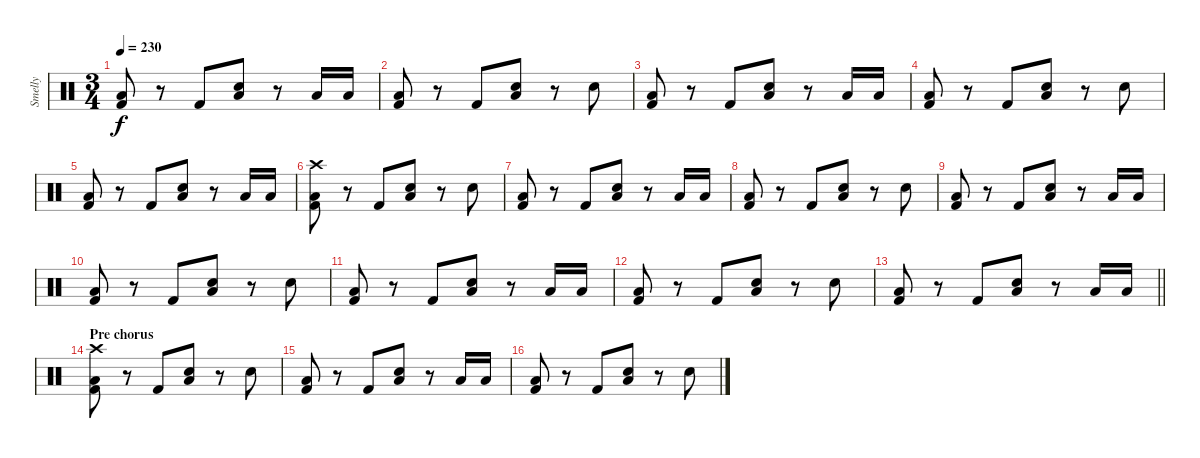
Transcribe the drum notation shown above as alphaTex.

\track ("Smelly" "Smelly") {instrument percussion}
\staff {score}
\articulation defaults
\ts (3 4)
\tempo 230
\clef neutral
\ks c
("Low Floor Tom (hit)" "Kick (hit) 2").8{dy f} r.8 "Kick (hit) 2".8 ("Low Floor Tom (hit)" "Electric Snare (hit)").8 r.8 "Low Floor Tom (hit)".16 "Low Floor Tom (hit)".16 |
("Low Floor Tom (hit)" "Kick (hit) 2").8 r.8 "Kick (hit) 2".8 ("Low Floor Tom (hit)" "Electric Snare (hit)").8 r.8 "Electric Snare (hit)".8 |
("Low Floor Tom (hit)" "Kick (hit) 2").8 r.8 "Kick (hit) 2".8 ("Low Floor Tom (hit)" "Electric Snare (hit)").8 r.8 "Low Floor Tom (hit)".16 "Low Floor Tom (hit)".16 |
("Low Floor Tom (hit)" "Kick (hit) 2").8 r.8 "Kick (hit) 2".8 ("Low Floor Tom (hit)" "Electric Snare (hit)").8 r.8 "Electric Snare (hit)".8 |
("Low Floor Tom (hit)" "Kick (hit) 2").8 r.8 "Kick (hit) 2".8 ("Low Floor Tom (hit)" "Electric Snare (hit)").8 r.8 "Low Floor Tom (hit)".16 "Low Floor Tom (hit)".16 |
("Crash high (hit)" "Low Floor Tom (hit)" "Kick (hit) 2").8 r.8 "Kick (hit) 2".8 ("Low Floor Tom (hit)" "Electric Snare (hit)").8 r.8 "Electric Snare (hit)".8 |
("Low Floor Tom (hit)" "Kick (hit) 2").8 r.8 "Kick (hit) 2".8 ("Low Floor Tom (hit)" "Electric Snare (hit)").8 r.8 "Low Floor Tom (hit)".16 "Low Floor Tom (hit)".16 |
("Low Floor Tom (hit)" "Kick (hit) 2").8 r.8 "Kick (hit) 2".8 ("Low Floor Tom (hit)" "Electric Snare (hit)").8 r.8 "Electric Snare (hit)".8 |
("Low Floor Tom (hit)" "Kick (hit) 2").8 r.8 "Kick (hit) 2".8 ("Low Floor Tom (hit)" "Electric Snare (hit)").8 r.8 "Low Floor Tom (hit)".16 "Low Floor Tom (hit)".16 |
("Low Floor Tom (hit)" "Kick (hit) 2").8 r.8 "Kick (hit) 2".8 ("Low Floor Tom (hit)" "Electric Snare (hit)").8 r.8 "Electric Snare (hit)".8 |
("Low Floor Tom (hit)" "Kick (hit) 2").8 r.8 "Kick (hit) 2".8 ("Low Floor Tom (hit)" "Electric Snare (hit)").8 r.8 "Low Floor Tom (hit)".16 "Low Floor Tom (hit)".16 |
("Low Floor Tom (hit)" "Kick (hit) 2").8 r.8 "Kick (hit) 2".8 ("Low Floor Tom (hit)" "Electric Snare (hit)").8 r.8 "Electric Snare (hit)".8 |
\barLineRight lightlight
("Low Floor Tom (hit)" "Kick (hit) 2").8 r.8 "Kick (hit) 2".8 ("Low Floor Tom (hit)" "Electric Snare (hit)").8 r.8 "Low Floor Tom (hit)".16 "Low Floor Tom (hit)".16 |
\section ("" "Pre chorus")
("Crash high (hit)" "Low Floor Tom (hit)" "Kick (hit) 2").8 r.8 "Kick (hit) 2".8 ("Low Floor Tom (hit)" "Electric Snare (hit)").8 r.8 "Electric Snare (hit)".8 |
("Low Floor Tom (hit)" "Kick (hit) 2").8 r.8 "Kick (hit) 2".8 ("Low Floor Tom (hit)" "Electric Snare (hit)").8 r.8 "Low Floor Tom (hit)".16 "Low Floor Tom (hit)".16 |
("Low Floor Tom (hit)" "Kick (hit) 2").8 r.8 "Kick (hit) 2".8 ("Low Floor Tom (hit)" "Electric Snare (hit)").8 r.8 "Electric Snare (hit)".8
